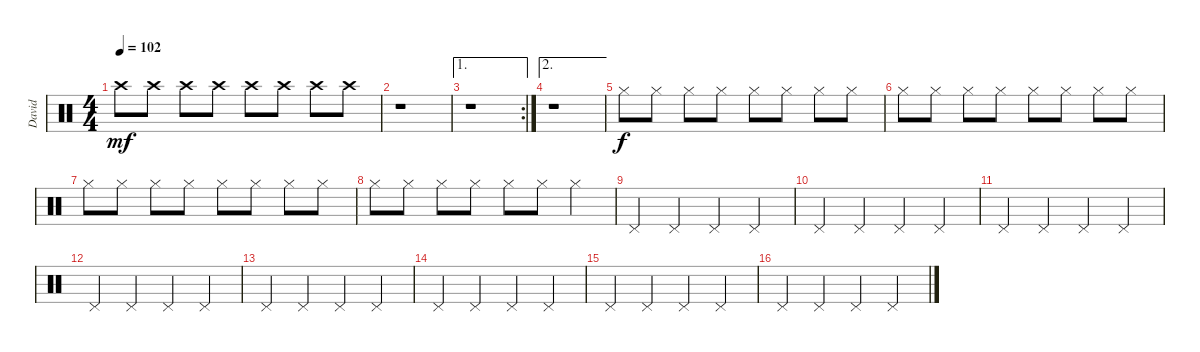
\track ("David" "David") {instrument percussion}
\staff {score}
\articulation defaults
\ts (4 4)
\tempo 102
\clef neutral
\ks c "Crash high (hit)".8{dy mf} "Crash high (hit)".8 "Crash high (hit)".8 "Crash high (hit)".8 "Crash high (hit)".8 "Crash high (hit)".8 "Crash high (hit)".8 "Crash high (hit)".8
|
r.1 |
\ae 1
\rc 2
r.1 |
\ae 2
r.1 |
"Hi-Hat (closed)".8{dy f} "Hi-Hat (closed)".8 "Hi-Hat (closed)".8 "Hi-Hat (closed)".8 "Hi-Hat (closed)".8 "Hi-Hat (closed)".8 "Hi-Hat (closed)".8 "Hi-Hat (closed)".8 |
"Hi-Hat (closed)".8 "Hi-Hat (closed)".8 "Hi-Hat (closed)".8 "Hi-Hat (closed)".8 "Hi-Hat (closed)".8 "Hi-Hat (closed)".8 "Hi-Hat (closed)".8 "Hi-Hat (closed)".8 |
"Hi-Hat (closed)".8 "Hi-Hat (closed)".8 "Hi-Hat (closed)".8 "Hi-Hat (closed)".8 "Hi-Hat (closed)".8 "Hi-Hat (closed)".8 "Hi-Hat (closed)".8 "Hi-Hat (closed)".8 |
"Hi-Hat (closed)".8 "Hi-Hat (closed)".8 "Hi-Hat (closed)".8 "Hi-Hat (closed)".8 "Hi-Hat (closed)".8 "Hi-Hat (closed)".8 "Hi-Hat (closed)".4 |
"Pedal Hi-Hat (hit)".4 "Pedal Hi-Hat (hit)".4 "Pedal Hi-Hat (hit)".4 "Pedal Hi-Hat (hit)".4 |
"Pedal Hi-Hat (hit)".4 "Pedal Hi-Hat (hit)".4 "Pedal Hi-Hat (hit)".4 "Pedal Hi-Hat (hit)".4 |
"Pedal Hi-Hat (hit)".4 "Pedal Hi-Hat (hit)".4 "Pedal Hi-Hat (hit)".4 "Pedal Hi-Hat (hit)".4 |
"Pedal Hi-Hat (hit)".4 "Pedal Hi-Hat (hit)".4 "Pedal Hi-Hat (hit)".4 "Pedal Hi-Hat (hit)".4 |
"Pedal Hi-Hat (hit)".4 "Pedal Hi-Hat (hit)".4 "Pedal Hi-Hat (hit)".4 "Pedal Hi-Hat (hit)".4 |
"Pedal Hi-Hat (hit)".4 "Pedal Hi-Hat (hit)".4 "Pedal Hi-Hat (hit)".4 "Pedal Hi-Hat (hit)".4 |
"Pedal Hi-Hat (hit)".4 "Pedal Hi-Hat (hit)".4 "Pedal Hi-Hat (hit)".4 "Pedal Hi-Hat (hit)".4 |
"Pedal Hi-Hat (hit)".4 "Pedal Hi-Hat (hit)".4 "Pedal Hi-Hat (hit)".4 "Pedal Hi-Hat (hit)".4
